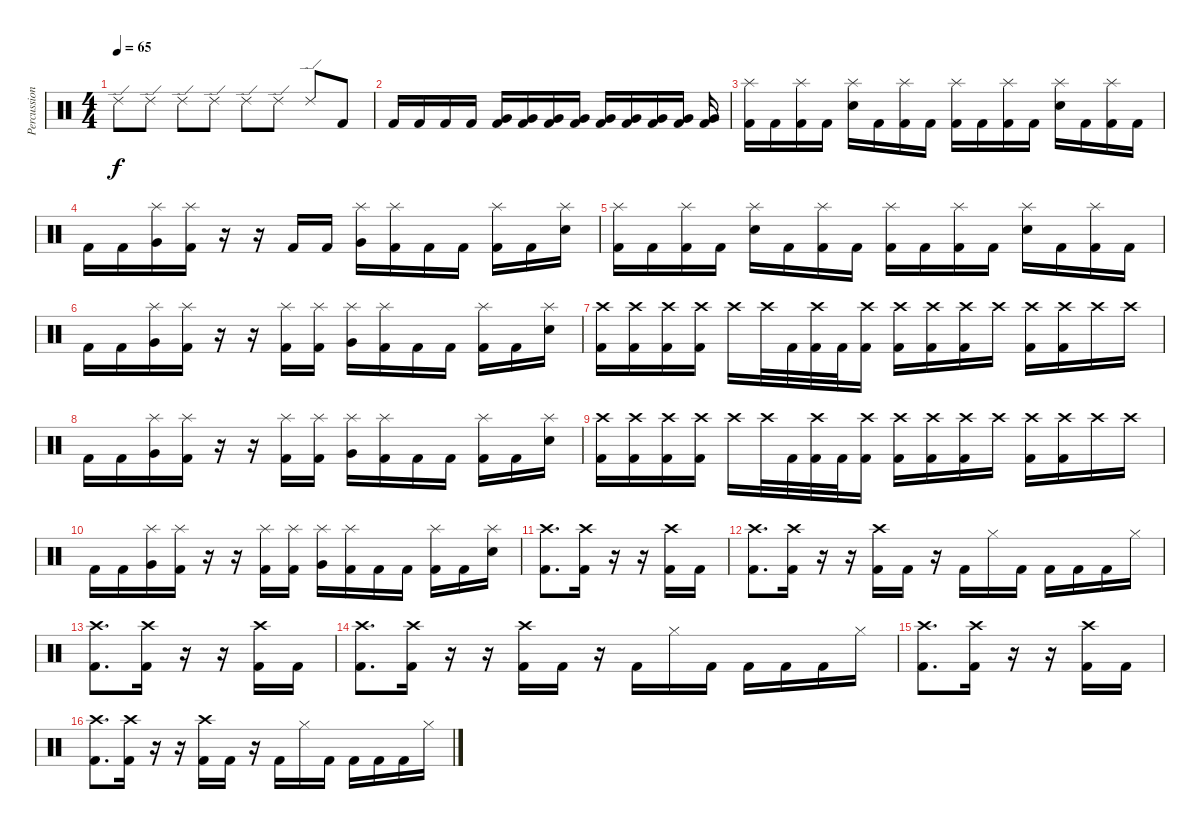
\track ("Percussion" "Percussion") {instrument percussion}
\staff {score}
\articulation defaults
\ts (4 4)
\tempo 65
\clef neutral
\ks c "Ride (edge) 2".8{dy f} "Ride (edge) 2".8 "Ride (edge) 2".8 "Ride (edge) 2".8 "Ride (edge) 2".8 "Ride (edge) 2".8 "Ride (edge) 2".8 "Kick (hit) 2".8
|
"Kick (hit) 2".16 "Kick (hit) 2".16 "Kick (hit) 2".16 "Kick (hit) 2".16 ("Kick (hit) 2" "Very Low Tom (hit)").16 ("Kick (hit) 2" "Very Low Tom (hit)").16 ("Kick (hit) 2" "Very Low Tom (hit)").16 ("Kick (hit) 2" "Very Low Tom (hit)").16 ("Kick (hit) 2" "Very Low Tom (hit)").16 ("Kick (hit) 2" "Very Low Tom (hit)").16 ("Kick (hit) 2" "Very Low Tom (hit)").16 ("Kick (hit) 2" "Very Low Tom (hit)").16 ("Kick (hit) 2" "Very Low Tom (hit)").16 |
("Splash (hit)" "Kick (hit) 2").16 "Kick (hit) 2".16 ("Splash (hit)" "Kick (hit) 2").16 "Kick (hit) 2".16 ("Splash (hit)" "Snare (hit) 2").16 "Kick (hit) 2".16 ("Splash (hit)" "Kick (hit) 2").16 "Kick (hit) 2".16 ("Splash (hit)" "Kick (hit) 2").16 "Kick (hit) 2".16 ("Splash (hit)" "Kick (hit) 2").16 "Kick (hit) 2".16 ("Splash (hit)" "Snare (hit) 2").16 "Kick (hit) 2".16 ("Splash (hit)" "Kick (hit) 2").16 "Kick (hit) 2".16 |
"Kick (hit) 2".16 "Kick (hit) 2".16 ("Splash (hit)" "Very Low Tom (hit)").16 ("Splash (hit)" "Kick (hit) 2").16 r.16 r.16 "Kick (hit) 2".16 "Kick (hit) 2".16 ("Splash (hit)" "Very Low Tom (hit)").16 ("Splash (hit)" "Kick (hit) 2").16 "Kick (hit) 2".16 "Kick (hit) 2".16 ("Splash (hit)" "Kick (hit) 2").16 "Kick (hit) 2".16 ("Splash (hit)" "Snare (hit) 2").16 |
("Splash (hit)" "Kick (hit) 2").16 "Kick (hit) 2".16 ("Splash (hit)" "Kick (hit) 2").16 "Kick (hit) 2".16 ("Splash (hit)" "Snare (hit) 2").16 "Kick (hit) 2".16 ("Splash (hit)" "Kick (hit) 2").16 "Kick (hit) 2".16 ("Splash (hit)" "Kick (hit) 2").16 "Kick (hit) 2".16 ("Splash (hit)" "Kick (hit) 2").16 "Kick (hit) 2".16 ("Splash (hit)" "Snare (hit) 2").16 "Kick (hit) 2".16 ("Splash (hit)" "Kick (hit) 2").16 "Kick (hit) 2".16 |
"Kick (hit) 2".16 "Kick (hit) 2".16 ("Splash (hit)" "Very Low Tom (hit)").16 ("Splash (hit)" "Kick (hit) 2").16 r.16 r.16 ("Splash (hit)" "Kick (hit) 2").16 ("Splash (hit)" "Kick (hit) 2").16 ("Splash (hit)" "Very Low Tom (hit)").16 ("Splash (hit)" "Kick (hit) 2").16 "Kick (hit) 2".16 "Kick (hit) 2".16 ("Splash (hit)" "Kick (hit) 2").16 "Kick (hit) 2".16 ("Splash (hit)" "Snare (hit) 2").16 |
("Crash high (hit)" "Kick (hit) 2").16 ("Crash high (hit)" "Kick (hit) 2").16 ("Crash high (hit)" "Kick (hit) 2").16 ("Crash high (hit)" "Kick (hit) 2").16 "Crash high (hit)".16 "Crash high (hit)".32 "Kick (hit) 2".32 ("Crash high (hit)" "Kick (hit) 2").32 "Kick (hit) 2".32 ("Crash high (hit)" "Kick (hit) 2").16 ("Crash high (hit)" "Kick (hit) 2").16 ("Crash high (hit)" "Kick (hit) 2").16 ("Crash high (hit)" "Kick (hit) 2").16 "Crash high (hit)".16 ("Crash high (hit)" "Kick (hit) 2").16 ("Crash high (hit)" "Kick (hit) 2").16 "Crash high (hit)".16 "Crash high (hit)".16 |
"Kick (hit) 2".16 "Kick (hit) 2".16 ("Splash (hit)" "Very Low Tom (hit)").16 ("Splash (hit)" "Kick (hit) 2").16 r.16 r.16 ("Splash (hit)" "Kick (hit) 2").16 ("Splash (hit)" "Kick (hit) 2").16 ("Splash (hit)" "Very Low Tom (hit)").16 ("Splash (hit)" "Kick (hit) 2").16 "Kick (hit) 2".16 "Kick (hit) 2".16 ("Splash (hit)" "Kick (hit) 2").16 "Kick (hit) 2".16 ("Splash (hit)" "Snare (hit) 2").16 |
("Crash high (hit)" "Kick (hit) 2").16 ("Crash high (hit)" "Kick (hit) 2").16 ("Crash high (hit)" "Kick (hit) 2").16 ("Crash high (hit)" "Kick (hit) 2").16 "Crash high (hit)".16 "Crash high (hit)".32 "Kick (hit) 2".32 ("Crash high (hit)" "Kick (hit) 2").32 "Kick (hit) 2".32 ("Crash high (hit)" "Kick (hit) 2").16 ("Crash high (hit)" "Kick (hit) 2").16 ("Crash high (hit)" "Kick (hit) 2").16 ("Crash high (hit)" "Kick (hit) 2").16 "Crash high (hit)".16 ("Crash high (hit)" "Kick (hit) 2").16 ("Crash high (hit)" "Kick (hit) 2").16 "Crash high (hit)".16 "Crash high (hit)".16 |
"Kick (hit) 2".16 "Kick (hit) 2".16 ("Splash (hit)" "Very Low Tom (hit)").16 ("Splash (hit)" "Kick (hit) 2").16 r.16 r.16 ("Splash (hit)" "Kick (hit) 2").16 ("Splash (hit)" "Kick (hit) 2").16 ("Splash (hit)" "Very Low Tom (hit)").16 ("Splash (hit)" "Kick (hit) 2").16 "Kick (hit) 2".16 "Kick (hit) 2".16 ("Splash (hit)" "Kick (hit) 2").16 "Kick (hit) 2".16 ("Splash (hit)" "Snare (hit) 2").16 |
("Crash high (hit)" "Kick (hit) 2").8{d} ("Crash high (hit)" "Kick (hit) 2").16 r.16 r.16 ("Crash high (hit)" "Kick (hit) 2").16 "Kick (hit) 2".16 |
("Crash high (hit)" "Kick (hit) 2").8{d} ("Crash high (hit)" "Kick (hit) 2").16 r.16 r.16 ("Crash high (hit)" "Kick (hit) 2").16 "Kick (hit) 2".16 r.16 "Kick (hit) 2".16 "Hi-Hat (closed)".16 "Kick (hit) 2".16 "Kick (hit) 2".16 "Kick (hit) 2".16 "Kick (hit) 2".16 "Hi-Hat (closed)".16 |
("Crash high (hit)" "Kick (hit) 2").8{d} ("Crash high (hit)" "Kick (hit) 2").16 r.16 r.16 ("Crash high (hit)" "Kick (hit) 2").16 "Kick (hit) 2".16 |
("Crash high (hit)" "Kick (hit) 2").8{d} ("Crash high (hit)" "Kick (hit) 2").16 r.16 r.16 ("Crash high (hit)" "Kick (hit) 2").16 "Kick (hit) 2".16 r.16 "Kick (hit) 2".16 "Hi-Hat (closed)".16 "Kick (hit) 2".16 "Kick (hit) 2".16 "Kick (hit) 2".16 "Kick (hit) 2".16 "Hi-Hat (closed)".16 |
("Crash high (hit)" "Kick (hit) 2").8{d} ("Crash high (hit)" "Kick (hit) 2").16 r.16 r.16 ("Crash high (hit)" "Kick (hit) 2").16 "Kick (hit) 2".16 |
("Crash high (hit)" "Kick (hit) 2").8{d} ("Crash high (hit)" "Kick (hit) 2").16 r.16 r.16 ("Crash high (hit)" "Kick (hit) 2").16 "Kick (hit) 2".16 r.16 "Kick (hit) 2".16 "Hi-Hat (closed)".16 "Kick (hit) 2".16 "Kick (hit) 2".16 "Kick (hit) 2".16 "Kick (hit) 2".16 "Hi-Hat (closed)".16
